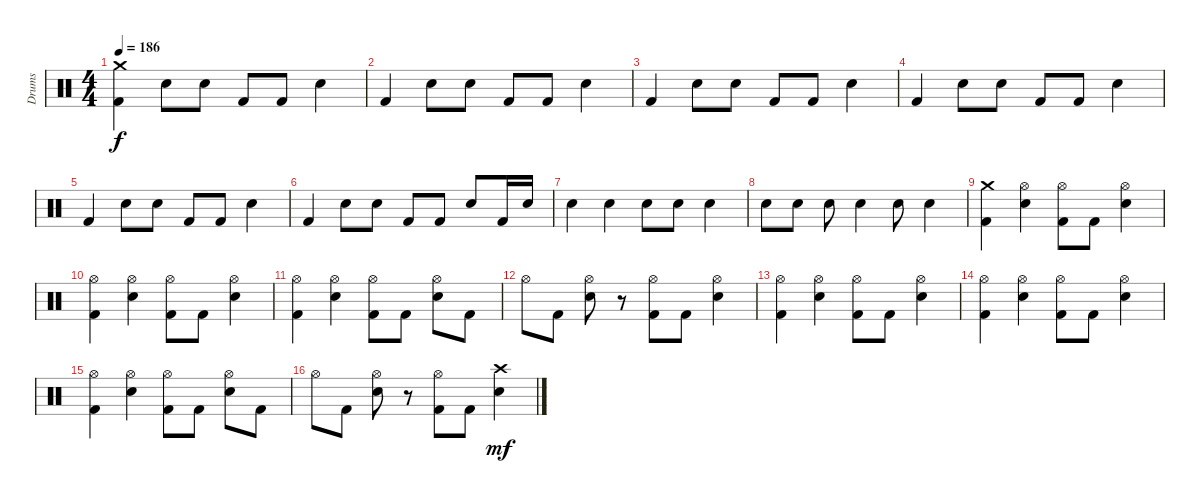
\track ("Drums" "Drums") {instrument percussion}
\staff
\articulation defaults
\ts (4 4)
\tempo 186
\clef neutral
\ks c
("Crash medium (hit)" "Kick (hit) 2").4{dy f} "Electric Snare (hit)".8 "Electric Snare (hit)".8 "Kick (hit) 2".8 "Kick (hit) 2".8 "Electric Snare (hit)".4 |
"Kick (hit) 2".4 "Electric Snare (hit)".8 "Electric Snare (hit)".8 "Kick (hit) 2".8 "Kick (hit) 2".8 "Electric Snare (hit)".4 |
"Kick (hit) 2".4 "Electric Snare (hit)".8 "Electric Snare (hit)".8 "Kick (hit) 2".8 "Kick (hit) 2".8 "Electric Snare (hit)".4 |
"Kick (hit) 2".4 "Electric Snare (hit)".8 "Electric Snare (hit)".8 "Kick (hit) 2".8 "Kick (hit) 2".8 "Electric Snare (hit)".4 |
"Kick (hit) 2".4 "Electric Snare (hit)".8 "Electric Snare (hit)".8 "Kick (hit) 2".8 "Kick (hit) 2".8 "Electric Snare (hit)".4 |
"Kick (hit) 2".4 "Electric Snare (hit)".8 "Electric Snare (hit)".8 "Kick (hit) 2".8 "Kick (hit) 2".8 "Electric Snare (hit)".8 "Kick (hit) 2".16 "Snare (hit)".16 |
"Electric Snare (hit)".4 "Electric Snare (hit)".4 "Electric Snare (hit)".8 "Electric Snare (hit)".8 "Electric Snare (hit)".4 |
"Electric Snare (hit)".8 "Electric Snare (hit)".8 "Electric Snare (hit)".8 "Electric Snare (hit)".4 "Electric Snare (hit)".8 "Electric Snare (hit)".4 |
("Crash medium (hit)" "Kick (hit) 2").4 ("Hi-Hat (open)" "Electric Snare (hit)").4 ("Hi-Hat (open)" "Kick (hit) 2").8 "Kick (hit) 2".8 ("Hi-Hat (open)" "Electric Snare (hit)").4 |
("Hi-Hat (open)" "Kick (hit) 2").4 ("Hi-Hat (open)" "Electric Snare (hit)").4 ("Hi-Hat (open)" "Kick (hit) 2").8 "Kick (hit) 2".8 ("Hi-Hat (open)" "Electric Snare (hit)").4 |
("Hi-Hat (open)" "Kick (hit) 2").4 ("Hi-Hat (open)" "Electric Snare (hit)").4 ("Hi-Hat (open)" "Kick (hit) 2").8 "Kick (hit) 2".8 ("Hi-Hat (open)" "Electric Snare (hit)").8 "Kick (hit) 2".8 |
"Hi-Hat (open)".8 "Kick (hit) 2".8 ("Hi-Hat (open)" "Electric Snare (hit)").8 r.8 ("Hi-Hat (open)" "Kick (hit) 2").8 "Kick (hit) 2".8 ("Hi-Hat (open)" "Electric Snare (hit)").4 |
("Hi-Hat (open)" "Kick (hit) 2").4 ("Hi-Hat (open)" "Electric Snare (hit)").4 ("Hi-Hat (open)" "Kick (hit) 2").8 "Kick (hit) 2".8 ("Hi-Hat (open)" "Electric Snare (hit)").4 |
("Hi-Hat (open)" "Kick (hit) 2").4 ("Hi-Hat (open)" "Electric Snare (hit)").4 ("Hi-Hat (open)" "Kick (hit) 2").8 "Kick (hit) 2".8 ("Hi-Hat (open)" "Electric Snare (hit)").4 |
("Hi-Hat (open)" "Kick (hit) 2").4 ("Hi-Hat (open)" "Electric Snare (hit)").4 ("Hi-Hat (open)" "Kick (hit) 2").8 "Kick (hit) 2".8 ("Hi-Hat (open)" "Electric Snare (hit)").8 "Kick (hit) 2".8 |
"Hi-Hat (open)".8 "Kick (hit) 2".8 ("Hi-Hat (open)" "Electric Snare (hit)").8 r.8 ("Hi-Hat (open)" "Kick (hit) 2").8 "Kick (hit) 2".8 ("Crash high (hit)" "Electric Snare (hit)").4{dy mf}
